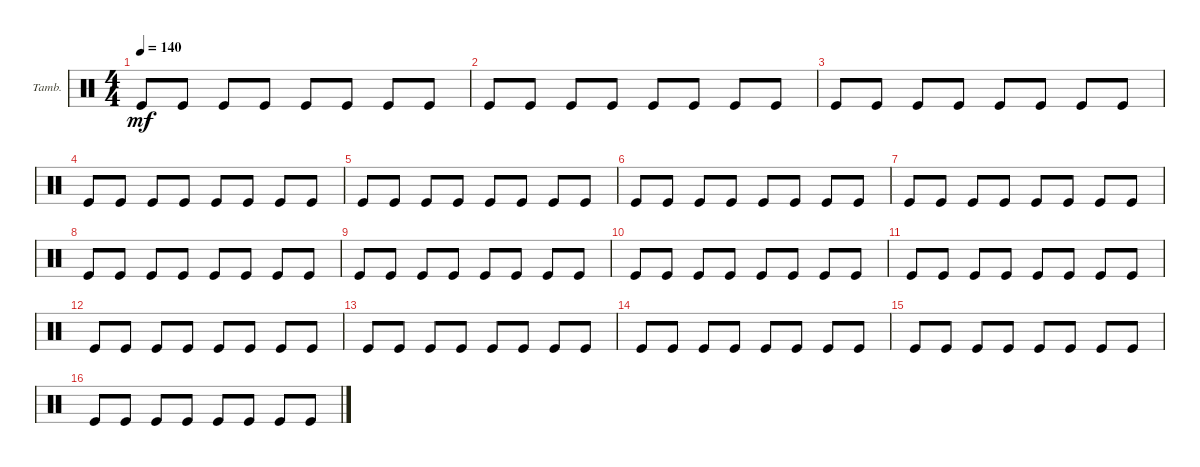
\defaultSystemsLayout 4
\bracketExtendMode groupsimilarinstruments
\firstSystemTrackNameOrientation horizontal
\otherSystemsTrackNameOrientation horizontal
\track ("Бубен" "Tamb.") {instrument percussion}
\staff {score}
\articulation defaults
\ts (4 4)
\tempo 140
\clef neutral
\scale
0.333333
\ks c "Kick (hit)".8{dy mf} "Kick (hit)".8 "Kick (hit)".8 "Kick (hit)".8 "Kick (hit)".8 "Kick (hit)".8 "Kick (hit)".8 "Kick (hit)".8
|
\scale
0.333333 "Kick (hit)".8 "Kick (hit)".8 "Kick (hit)".8 "Kick (hit)".8 "Kick (hit)".8 "Kick (hit)".8 "Kick (hit)".8 "Kick (hit)".8 |
\scale
0.333333 "Kick (hit)".8 "Kick (hit)".8 "Kick (hit)".8 "Kick (hit)".8 "Kick (hit)".8 "Kick (hit)".8 "Kick (hit)".8 "Kick (hit)".8 |
\scale
0.333333 "Kick (hit)".8 "Kick (hit)".8 "Kick (hit)".8 "Kick (hit)".8 "Kick (hit)".8 "Kick (hit)".8 "Kick (hit)".8 "Kick (hit)".8 |
\scale
0.333333 "Kick (hit)".8 "Kick (hit)".8 "Kick (hit)".8 "Kick (hit)".8 "Kick (hit)".8 "Kick (hit)".8 "Kick (hit)".8 "Kick (hit)".8 |
\scale
0.333333 "Kick (hit)".8 "Kick (hit)".8 "Kick (hit)".8 "Kick (hit)".8 "Kick (hit)".8 "Kick (hit)".8 "Kick (hit)".8 "Kick (hit)".8 |
\scale
0.333333 "Kick (hit)".8 "Kick (hit)".8 "Kick (hit)".8 "Kick (hit)".8 "Kick (hit)".8 "Kick (hit)".8 "Kick (hit)".8 "Kick (hit)".8 |
\scale
0.333333 "Kick (hit)".8 "Kick (hit)".8 "Kick (hit)".8 "Kick (hit)".8 "Kick (hit)".8 "Kick (hit)".8 "Kick (hit)".8 "Kick (hit)".8 |
\scale
0.333333 "Kick (hit)".8 "Kick (hit)".8 "Kick (hit)".8 "Kick (hit)".8 "Kick (hit)".8 "Kick (hit)".8 "Kick (hit)".8 "Kick (hit)".8 |
\scale
0.333333 "Kick (hit)".8 "Kick (hit)".8 "Kick (hit)".8 "Kick (hit)".8 "Kick (hit)".8 "Kick (hit)".8 "Kick (hit)".8 "Kick (hit)".8 |
\scale
0.333333 "Kick (hit)".8 "Kick (hit)".8 "Kick (hit)".8 "Kick (hit)".8 "Kick (hit)".8 "Kick (hit)".8 "Kick (hit)".8 "Kick (hit)".8 |
\scale
0.333333 "Kick (hit)".8 "Kick (hit)".8 "Kick (hit)".8 "Kick (hit)".8 "Kick (hit)".8 "Kick (hit)".8 "Kick (hit)".8 "Kick (hit)".8 |
\scale
0.333333 "Kick (hit)".8 "Kick (hit)".8 "Kick (hit)".8 "Kick (hit)".8 "Kick (hit)".8 "Kick (hit)".8 "Kick (hit)".8 "Kick (hit)".8 |
\scale
0.333333 "Kick (hit)".8 "Kick (hit)".8 "Kick (hit)".8 "Kick (hit)".8 "Kick (hit)".8 "Kick (hit)".8 "Kick (hit)".8 "Kick (hit)".8 |
\scale
0.333333 "Kick (hit)".8 "Kick (hit)".8 "Kick (hit)".8 "Kick (hit)".8 "Kick (hit)".8 "Kick (hit)".8 "Kick (hit)".8 "Kick (hit)".8 |
\scale
0.333333 "Kick (hit)".8 "Kick (hit)".8 "Kick (hit)".8 "Kick (hit)".8 "Kick (hit)".8 "Kick (hit)".8 "Kick (hit)".8 "Kick (hit)".8
